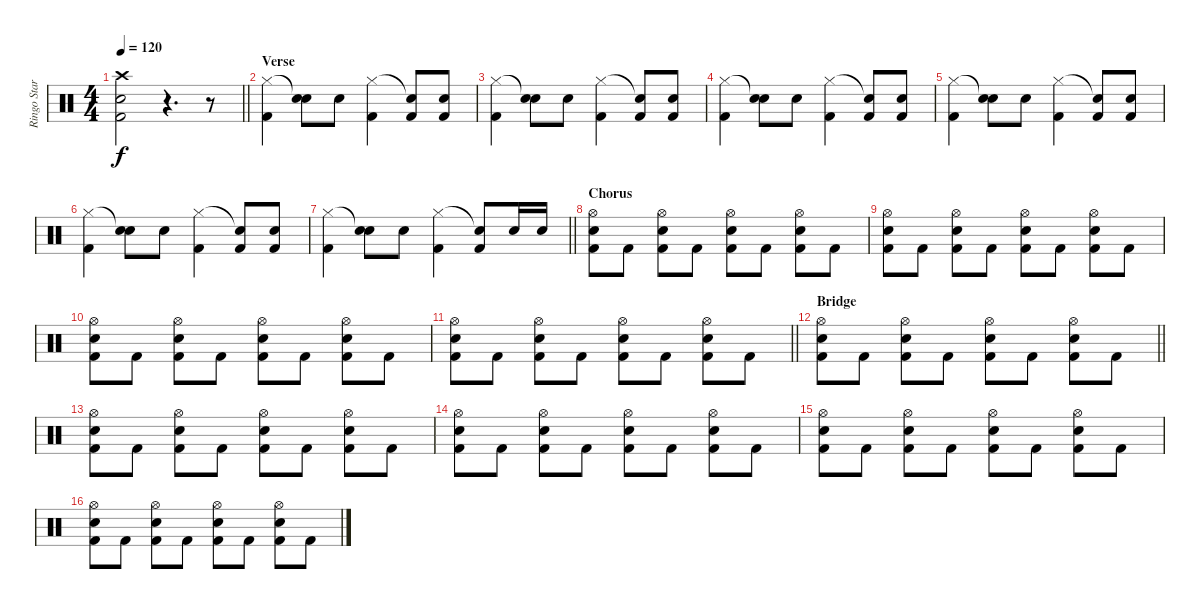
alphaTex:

\track ("Ringo Starr" "Ringo Star") {instrument percussion}
\staff {score}
\articulation defaults
\ts (4 4)
\tempo 120
\clef neutral
\barLineRight lightlight
\ks c
("Crash high (hit)" "Electric Snare (hit)" "Kick (hit) 2").2{dy f} r.4{d} r.8 |
\section ("" "Verse")
("Hi-Hat (closed)" "Kick (hit) 2").4 ("Snare (hit)"{t} "Electric Snare (hit)").8 "Electric Snare (hit)".8 ("Hi-Hat (closed)" "Kick (hit) 2").4 ("Snare (hit)"{t} "Kick (hit) 2").8 ("Snare (hit) 2" "Kick (hit) 2").8 |
("Hi-Hat (closed)" "Kick (hit) 2").4 ("Snare (hit)"{t} "Electric Snare (hit)").8 "Electric Snare (hit)".8 ("Hi-Hat (closed)" "Kick (hit) 2").4 ("Snare (hit)"{t} "Kick (hit) 2").8 ("Snare (hit) 2" "Kick (hit) 2").8 |
("Hi-Hat (closed)" "Kick (hit) 2").4 ("Snare (hit)"{t} "Electric Snare (hit)").8 "Electric Snare (hit)".8 ("Hi-Hat (closed)" "Kick (hit) 2").4 ("Snare (hit)"{t} "Kick (hit) 2").8 ("Snare (hit) 2" "Kick (hit) 2").8 |
("Hi-Hat (closed)" "Kick (hit) 2").4 ("Snare (hit)"{t} "Electric Snare (hit)").8 "Electric Snare (hit)".8 ("Hi-Hat (closed)" "Kick (hit) 2").4 ("Snare (hit)"{t} "Kick (hit) 2").8 ("Snare (hit) 2" "Kick (hit) 2").8 |
("Hi-Hat (closed)" "Kick (hit) 2").4 ("Snare (hit)"{t} "Electric Snare (hit)").8 "Electric Snare (hit)".8 ("Hi-Hat (closed)" "Kick (hit) 2").4 ("Snare (hit)"{t} "Kick (hit) 2").8 ("Snare (hit) 2" "Kick (hit) 2").8 |
\barLineRight lightlight
("Hi-Hat (closed)" "Kick (hit) 2").4 ("Snare (hit)"{t} "Electric Snare (hit)").8 "Electric Snare (hit)".8 ("Hi-Hat (closed)" "Kick (hit) 2").4 ("Snare (hit)"{t} "Kick (hit) 2").8 "Electric Snare (hit)".16 "Electric Snare (hit)".16 |
\section ("" "Chorus")
("Hi-Hat (open)" "Electric Snare (hit)" "Kick (hit) 2").8 "Kick (hit) 2".8 ("Hi-Hat (open)" "Electric Snare (hit)" "Kick (hit) 2").8 "Kick (hit) 2".8 ("Hi-Hat (open)" "Electric Snare (hit)" "Kick (hit) 2").8 "Kick (hit) 2".8 ("Hi-Hat (open)" "Electric Snare (hit)" "Kick (hit) 2").8 "Kick (hit) 2".8 |
("Hi-Hat (open)" "Electric Snare (hit)" "Kick (hit) 2").8 "Kick (hit) 2".8 ("Hi-Hat (open)" "Electric Snare (hit)" "Kick (hit) 2").8 "Kick (hit) 2".8 ("Hi-Hat (open)" "Electric Snare (hit)" "Kick (hit) 2").8 "Kick (hit) 2".8 ("Hi-Hat (open)" "Electric Snare (hit)" "Kick (hit) 2").8 "Kick (hit) 2".8 |
("Hi-Hat (open)" "Electric Snare (hit)" "Kick (hit) 2").8 "Kick (hit) 2".8 ("Hi-Hat (open)" "Electric Snare (hit)" "Kick (hit) 2").8 "Kick (hit) 2".8 ("Hi-Hat (open)" "Electric Snare (hit)" "Kick (hit) 2").8 "Kick (hit) 2".8 ("Hi-Hat (open)" "Electric Snare (hit)" "Kick (hit) 2").8 "Kick (hit) 2".8 |
\barLineRight lightlight
("Hi-Hat (open)" "Electric Snare (hit)" "Kick (hit) 2").8 "Kick (hit) 2".8 ("Hi-Hat (open)" "Electric Snare (hit)" "Kick (hit) 2").8 "Kick (hit) 2".8 ("Hi-Hat (open)" "Electric Snare (hit)" "Kick (hit) 2").8 "Kick (hit) 2".8 ("Hi-Hat (open)" "Electric Snare (hit)" "Kick (hit) 2").8 "Kick (hit) 2".8 |
\section ("" "Bridge")
\barLineRight lightlight
("Hi-Hat (open)" "Electric Snare (hit)" "Kick (hit) 2").8 "Kick (hit) 2".8 ("Hi-Hat (open)" "Electric Snare (hit)" "Kick (hit) 2").8 "Kick (hit) 2".8 ("Hi-Hat (open)" "Electric Snare (hit)" "Kick (hit) 2").8 "Kick (hit) 2".8 ("Hi-Hat (open)" "Electric Snare (hit)" "Kick (hit) 2").8 "Kick (hit) 2".8 |
("Hi-Hat (open)" "Electric Snare (hit)" "Kick (hit) 2").8 "Kick (hit) 2".8 ("Hi-Hat (open)" "Electric Snare (hit)" "Kick (hit) 2").8 "Kick (hit) 2".8 ("Hi-Hat (open)" "Electric Snare (hit)" "Kick (hit) 2").8 "Kick (hit) 2".8 ("Hi-Hat (open)" "Electric Snare (hit)" "Kick (hit) 2").8 "Kick (hit) 2".8 |
("Hi-Hat (open)" "Electric Snare (hit)" "Kick (hit) 2").8 "Kick (hit) 2".8 ("Hi-Hat (open)" "Electric Snare (hit)" "Kick (hit) 2").8 "Kick (hit) 2".8 ("Hi-Hat (open)" "Electric Snare (hit)" "Kick (hit) 2").8 "Kick (hit) 2".8 ("Hi-Hat (open)" "Electric Snare (hit)" "Kick (hit) 2").8 "Kick (hit) 2".8 |
("Hi-Hat (open)" "Electric Snare (hit)" "Kick (hit) 2").8 "Kick (hit) 2".8 ("Hi-Hat (open)" "Electric Snare (hit)" "Kick (hit) 2").8 "Kick (hit) 2".8 ("Hi-Hat (open)" "Electric Snare (hit)" "Kick (hit) 2").8 "Kick (hit) 2".8 ("Hi-Hat (open)" "Electric Snare (hit)" "Kick (hit) 2").8 "Kick (hit) 2".8 |
("Hi-Hat (open)" "Electric Snare (hit)" "Kick (hit) 2").8 "Kick (hit) 2".8 ("Hi-Hat (open)" "Electric Snare (hit)" "Kick (hit) 2").8 "Kick (hit) 2".8 ("Hi-Hat (open)" "Electric Snare (hit)" "Kick (hit) 2").8 "Kick (hit) 2".8 ("Hi-Hat (open)" "Electric Snare (hit)" "Kick (hit) 2").8 "Kick (hit) 2".8
